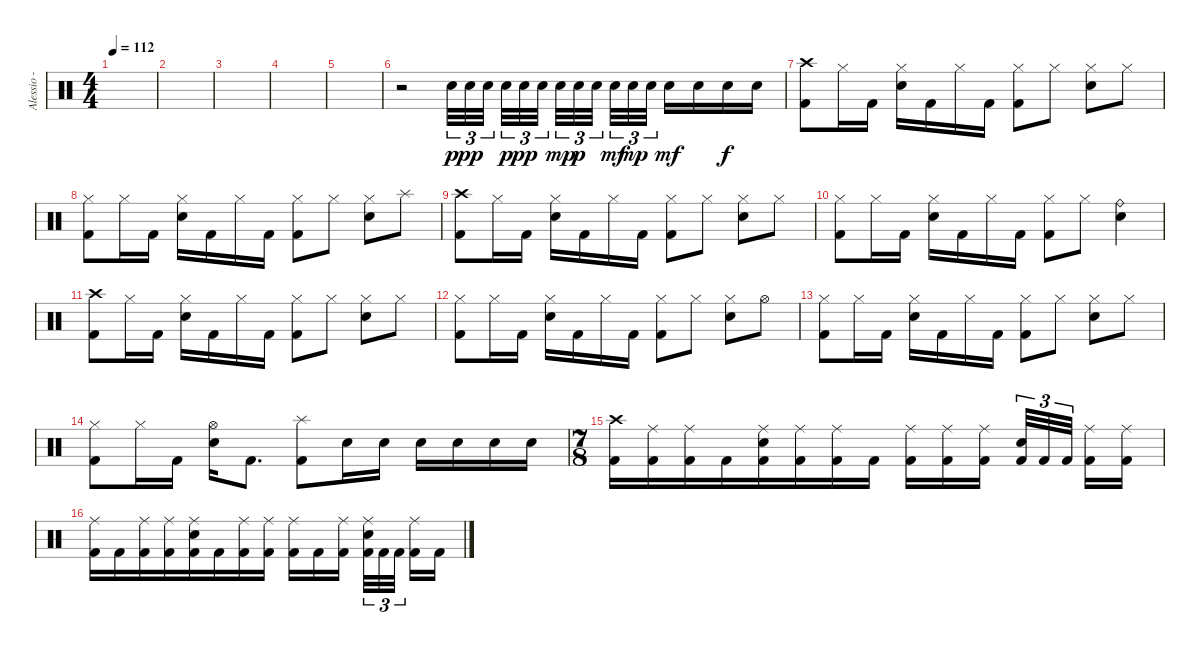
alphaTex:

\track ("Alessio - Drums" "Alessio - ") {instrument percussion}
\staff {score}
\articulation defaults
\ts (4 4)
\tempo 112
\clef neutral
\ks c
|
|
|
|
|
r.2 "Electric Snare (hit)".32{tu (3 2) dy p} "Electric Snare (hit)".32{tu (3 2) dy pp} "Electric Snare (hit)".32{tu (3 2)} "Electric Snare (hit)".32{tu (3 2) dy p} "Electric Snare (hit)".32{tu (3 2) dy pp} "Electric Snare (hit)".32{tu (3 2)} "Electric Snare (hit)".32{tu (3 2) dy mp} "Electric Snare (hit)".32{tu (3 2) dy p} "Electric Snare (hit)".32{tu (3 2)} "Electric Snare (hit)".32{tu (3 2) dy mf} "Electric Snare (hit)".32{tu (3 2) dy mp} "Electric Snare (hit)".32{tu (3 2)} "Electric Snare (hit)".16{dy mf} "Electric Snare (hit)".16 "Electric Snare (hit)".16{dy f} "Electric Snare (hit)".16 |
("Crash high (hit)" "Kick (hit) 2").8 "Hi-Hat (closed)".16 "Kick (hit) 2".16 ("Hi-Hat (closed)" "Electric Snare (hit)").16 "Kick (hit) 2".16 "Hi-Hat (closed)".16 "Kick (hit) 2".16 ("Hi-Hat (closed)" "Kick (hit) 2").8 "Hi-Hat (closed)".8 ("Hi-Hat (closed)" "Electric Snare (hit)").8 "Hi-Hat (closed)".8 |
("Hi-Hat (closed)" "Kick (hit) 2").8 "Hi-Hat (closed)".16 "Kick (hit) 2".16 ("Hi-Hat (closed)" "Electric Snare (hit)").16 "Kick (hit) 2".16 "Hi-Hat (closed)".16 "Kick (hit) 2".16 ("Hi-Hat (closed)" "Kick (hit) 2").8 "Hi-Hat (closed)".8 ("Hi-Hat (closed)" "Electric Snare (hit)").8 "Splash (hit)".8 |
("Crash high (hit)" "Kick (hit) 2").8 "Hi-Hat (closed)".16 "Kick (hit) 2".16 ("Hi-Hat (closed)" "Electric Snare (hit)").16 "Kick (hit) 2".16 "Hi-Hat (closed)".16 "Kick (hit) 2".16 ("Hi-Hat (closed)" "Kick (hit) 2").8 "Hi-Hat (closed)".8 ("Hi-Hat (closed)" "Electric Snare (hit)").8 "Hi-Hat (closed)".8 |
("Hi-Hat (closed)" "Kick (hit) 2").8 "Hi-Hat (closed)".16 "Kick (hit) 2".16 ("Hi-Hat (closed)" "Electric Snare (hit)").16 "Kick (hit) 2".16 "Hi-Hat (closed)".16 "Kick (hit) 2".16 ("Hi-Hat (closed)" "Kick (hit) 2").8 "Hi-Hat (closed)".8 ("Ride (bell)" "Electric Snare (hit)").4 |
("Crash high (hit)" "Kick (hit) 2").8 "Hi-Hat (closed)".16 "Kick (hit) 2".16 ("Hi-Hat (closed)" "Electric Snare (hit)").16 "Kick (hit) 2".16 "Hi-Hat (closed)".16 "Kick (hit) 2".16 ("Hi-Hat (closed)" "Kick (hit) 2").8 "Hi-Hat (closed)".8 ("Hi-Hat (closed)" "Electric Snare (hit)").8 "Hi-Hat (closed)".8 |
("Hi-Hat (closed)" "Kick (hit) 2").8 "Hi-Hat (closed)".16 "Kick (hit) 2".16 ("Hi-Hat (closed)" "Electric Snare (hit)").16 "Kick (hit) 2".16 "Hi-Hat (closed)".16 "Kick (hit) 2".16 ("Hi-Hat (closed)" "Kick (hit) 2").8 "Hi-Hat (closed)".8 ("Hi-Hat (closed)" "Electric Snare (hit)").8 "Hi-Hat (open)".8 |
("Hi-Hat (closed)" "Kick (hit) 2").8 "Hi-Hat (closed)".16 "Kick (hit) 2".16 ("Hi-Hat (closed)" "Electric Snare (hit)").16 "Kick (hit) 2".16 "Hi-Hat (closed)".16 "Kick (hit) 2".16 ("Hi-Hat (closed)" "Kick (hit) 2").8 "Hi-Hat (closed)".8 ("Hi-Hat (closed)" "Electric Snare (hit)").8 "Hi-Hat (closed)".8 |
("Hi-Hat (closed)" "Kick (hit) 2").8 "Hi-Hat (closed)".16 "Kick (hit) 2".16 ("Hi-Hat (open)" "Electric Snare (hit)").16 "Kick (hit) 2".8{d} ("Splash (hit)" "Kick (hit) 2").8 "Electric Snare (hit)".16 "Electric Snare (hit)".16 "Electric Snare (hit)".16 "Electric Snare (hit)".16 "Electric Snare (hit)".16 "Electric Snare (hit)".16 |
\ts (7 8)
("Crash high (hit)" "Kick (hit) 2").16 ("Ride (middle)" "Kick (hit) 2").16 ("Ride (middle)" "Kick (hit) 2").16 "Kick (hit) 2".16 ("Ride (middle)" "Electric Snare (hit)" "Kick (hit) 2").16 ("Ride (middle)" "Kick (hit) 2").16 ("Ride (middle)" "Kick (hit) 2").16 "Kick (hit) 2".16 ("Ride (middle)" "Kick (hit) 2").16 ("Ride (middle)" "Kick (hit) 2").16 ("Ride (middle)" "Kick (hit) 2").16 ("Electric Snare (hit)" "Kick (hit) 2").32{tu (3 2)} "Kick (hit) 2".32{tu (3 2)} "Kick (hit) 2".32{tu (3 2)} ("Ride (middle)" "Kick (hit) 2").16 ("Ride (middle)" "Kick (hit) 2").16 |
("Ride (middle)" "Kick (hit) 2").16 "Kick (hit) 2".16 ("Ride (middle)" "Kick (hit) 2").16 ("Ride (middle)" "Kick (hit) 2").16 ("Ride (middle)" "Electric Snare (hit)" "Kick (hit) 2").16 "Kick (hit) 2".16 ("Ride (middle)" "Kick (hit) 2").16 ("Ride (middle)" "Kick (hit) 2").16 ("Ride (middle)" "Kick (hit) 2").16 "Kick (hit) 2".16 ("Ride (middle)" "Kick (hit) 2").16 ("Ride (middle)" "Electric Snare (hit)" "Kick (hit) 2").32{tu (3 2)} "Kick (hit) 2".32{tu (3 2)} "Kick (hit) 2".32{tu (3 2)} ("Ride (middle)" "Kick (hit) 2").16 "Kick (hit) 2".16
